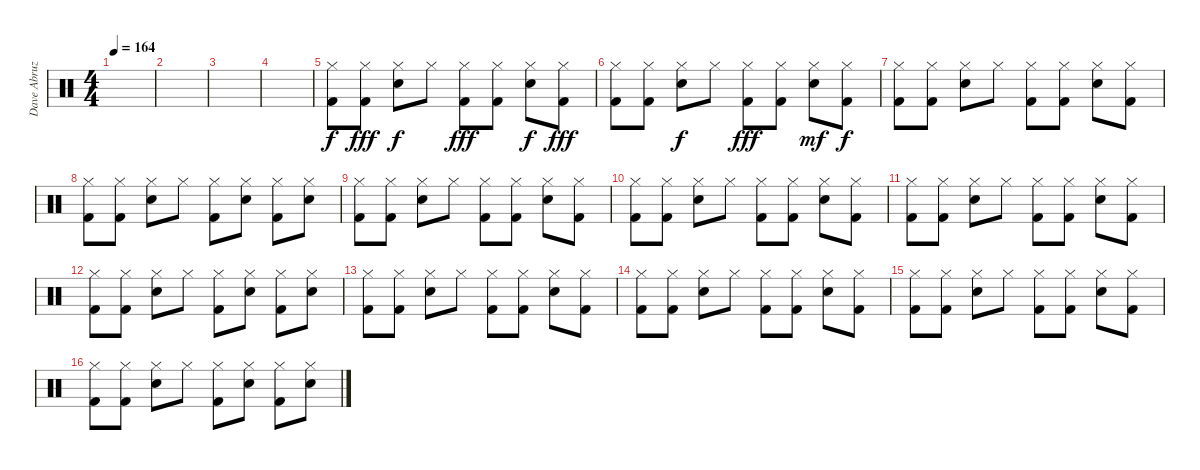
\track ("Dave Abruzzese" "Dave Abruz") {instrument percussion}
\staff {score}
\articulation defaults
\ts (4 4)
\tempo 164
\clef neutral
\ks c
|
|
|
|
("Kick (hit) 2" "Hi-Hat (closed)").8 ("Kick (hit) 2" "Hi-Hat (closed)").8{dy fff} ("Snare (hit) 2" "Hi-Hat (closed)").8{dy f} "Hi-Hat (closed)".8 ("Kick (hit) 2" "Hi-Hat (closed)").8{dy fff} ("Kick (hit) 2" "Hi-Hat (closed)").8 ("Snare (hit) 2" "Hi-Hat (closed)").8{dy f} ("Kick (hit) 2" "Hi-Hat (closed)").8{dy fff} |
("Kick (hit) 2" "Hi-Hat (closed)").8 ("Kick (hit) 2" "Hi-Hat (closed)").8 ("Snare (hit) 2" "Hi-Hat (closed)").8{dy f} "Hi-Hat (closed)".8 ("Kick (hit) 2" "Hi-Hat (closed)").8{dy fff} ("Kick (hit) 2" "Hi-Hat (closed)").8 ("Snare (hit) 2" "Hi-Hat (closed)").8{dy mf} ("Kick (hit) 2" "Hi-Hat (closed)").8{dy f} |
("Kick (hit) 2" "Hi-Hat (closed)").8 ("Kick (hit) 2" "Hi-Hat (closed)").8 ("Snare (hit) 2" "Hi-Hat (closed)").8 "Hi-Hat (closed)".8 ("Kick (hit) 2" "Hi-Hat (closed)").8 ("Kick (hit) 2" "Hi-Hat (closed)").8 ("Snare (hit) 2" "Hi-Hat (closed)").8 ("Kick (hit) 2" "Hi-Hat (closed)").8 |
("Kick (hit) 2" "Hi-Hat (closed)").8 ("Kick (hit) 2" "Hi-Hat (closed)").8 ("Snare (hit) 2" "Hi-Hat (closed)").8 "Hi-Hat (closed)".8 ("Kick (hit) 2" "Hi-Hat (closed)").8 ("Snare (hit) 2" "Hi-Hat (closed)").8 ("Kick (hit) 2" "Hi-Hat (closed)").8 ("Snare (hit) 2" "Hi-Hat (closed)").8 |
("Kick (hit) 2" "Hi-Hat (closed)").8 ("Kick (hit) 2" "Hi-Hat (closed)").8 ("Snare (hit) 2" "Hi-Hat (closed)").8 "Hi-Hat (closed)".8 ("Kick (hit) 2" "Hi-Hat (closed)").8 ("Kick (hit) 2" "Hi-Hat (closed)").8 ("Snare (hit) 2" "Hi-Hat (closed)").8 ("Kick (hit) 2" "Hi-Hat (closed)").8 |
("Kick (hit) 2" "Hi-Hat (closed)").8 ("Kick (hit) 2" "Hi-Hat (closed)").8 ("Snare (hit) 2" "Hi-Hat (closed)").8 "Hi-Hat (closed)".8 ("Kick (hit) 2" "Hi-Hat (closed)").8 ("Kick (hit) 2" "Hi-Hat (closed)").8 ("Snare (hit) 2" "Hi-Hat (closed)").8 ("Kick (hit) 2" "Hi-Hat (closed)").8 |
("Kick (hit) 2" "Hi-Hat (closed)").8 ("Kick (hit) 2" "Hi-Hat (closed)").8 ("Snare (hit) 2" "Hi-Hat (closed)").8 "Hi-Hat (closed)".8 ("Kick (hit) 2" "Hi-Hat (closed)").8 ("Kick (hit) 2" "Hi-Hat (closed)").8 ("Snare (hit) 2" "Hi-Hat (closed)").8 ("Kick (hit) 2" "Hi-Hat (closed)").8 |
("Kick (hit) 2" "Hi-Hat (closed)").8 ("Kick (hit) 2" "Hi-Hat (closed)").8 ("Snare (hit) 2" "Hi-Hat (closed)").8 "Hi-Hat (closed)".8 ("Kick (hit) 2" "Hi-Hat (closed)").8 ("Snare (hit) 2" "Hi-Hat (closed)").8 ("Kick (hit) 2" "Hi-Hat (closed)").8 ("Snare (hit) 2" "Hi-Hat (closed)").8 |
("Kick (hit) 2" "Hi-Hat (closed)").8 ("Kick (hit) 2" "Hi-Hat (closed)").8 ("Snare (hit) 2" "Hi-Hat (closed)").8 "Hi-Hat (closed)".8 ("Kick (hit) 2" "Hi-Hat (closed)").8 ("Kick (hit) 2" "Hi-Hat (closed)").8 ("Snare (hit) 2" "Hi-Hat (closed)").8 ("Kick (hit) 2" "Hi-Hat (closed)").8 |
("Kick (hit) 2" "Hi-Hat (closed)").8 ("Kick (hit) 2" "Hi-Hat (closed)").8 ("Snare (hit) 2" "Hi-Hat (closed)").8 "Hi-Hat (closed)".8 ("Kick (hit) 2" "Hi-Hat (closed)").8 ("Kick (hit) 2" "Hi-Hat (closed)").8 ("Snare (hit) 2" "Hi-Hat (closed)").8 ("Kick (hit) 2" "Hi-Hat (closed)").8 |
("Kick (hit) 2" "Hi-Hat (closed)").8 ("Kick (hit) 2" "Hi-Hat (closed)").8 ("Snare (hit) 2" "Hi-Hat (closed)").8 "Hi-Hat (closed)".8 ("Kick (hit) 2" "Hi-Hat (closed)").8 ("Kick (hit) 2" "Hi-Hat (closed)").8 ("Snare (hit) 2" "Hi-Hat (closed)").8 ("Kick (hit) 2" "Hi-Hat (closed)").8 |
("Kick (hit) 2" "Hi-Hat (closed)").8 ("Kick (hit) 2" "Hi-Hat (closed)").8 ("Snare (hit) 2" "Hi-Hat (closed)").8 "Hi-Hat (closed)".8 ("Kick (hit) 2" "Hi-Hat (closed)").8 ("Snare (hit) 2" "Hi-Hat (closed)").8 ("Kick (hit) 2" "Hi-Hat (closed)").8 ("Snare (hit) 2" "Hi-Hat (closed)").8
